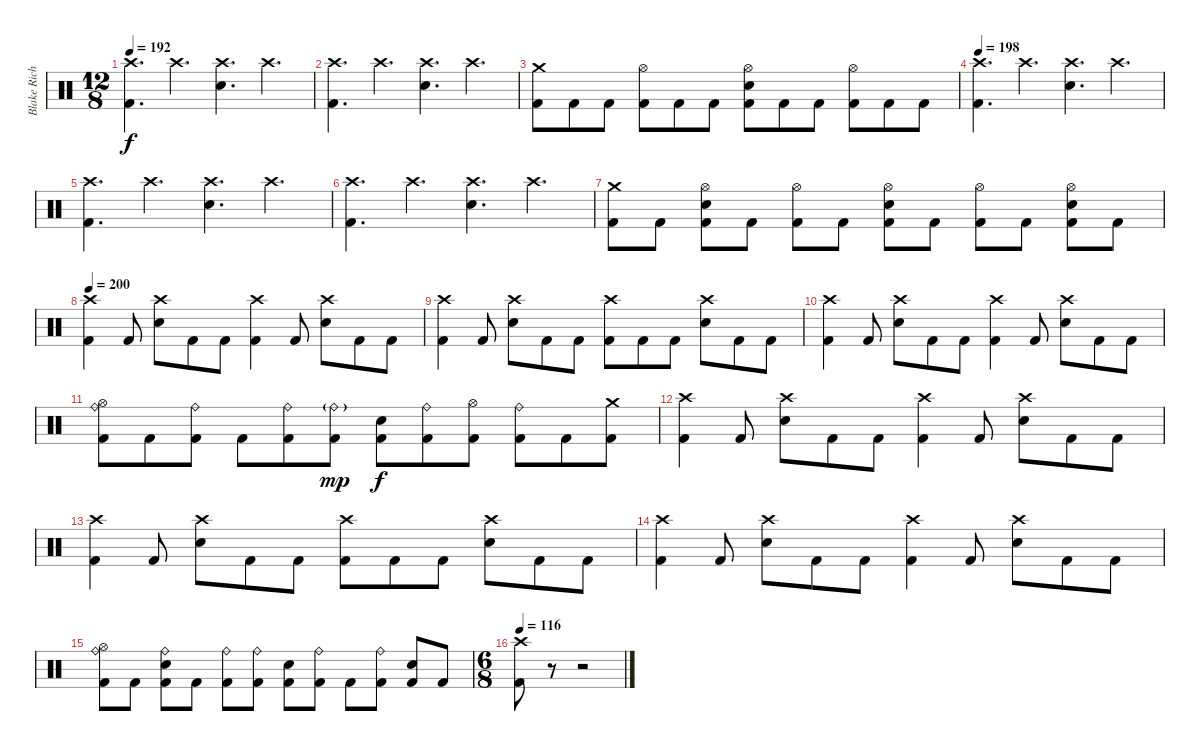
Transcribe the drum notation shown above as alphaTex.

\track ("Blake Richardson" "Blake Rich") {instrument percussion}
\staff {score}
\articulation defaults
\ts (12 8)
\tempo 192
\clef neutral
\ks c
("Crash high (hit)" "Kick (hit) 2").4{d dy f} "Crash high (hit)".4{d} ("Crash high (hit)" "Electric Snare (hit)").4{d} "Crash high (hit)".4{d} |
("Crash high (hit)" "Kick (hit) 2").4{d} "Crash high (hit)".4{d} ("Crash high (hit)" "Electric Snare (hit)").4{d} "Crash high (hit)".4{d} |
("Crash medium (hit)" "Kick (hit) 2").8 "Kick (hit) 2".8 "Kick (hit) 2".8 ("Hi-Hat (open)" "Kick (hit) 2").8 "Kick (hit) 2".8 "Kick (hit) 2".8 ("Hi-Hat (open)" "Electric Snare (hit)" "Kick (hit) 2").8 "Kick (hit) 2".8 "Kick (hit) 2".8 ("Hi-Hat (open)" "Kick (hit) 2").8 "Kick (hit) 2".8 "Kick (hit) 2".8 |
\tempo 198
("Crash high (hit)" "Kick (hit) 2").4{d} "Crash high (hit)".4{d} ("Crash high (hit)" "Electric Snare (hit)").4{d} "Crash high (hit)".4{d} |
("Crash high (hit)" "Kick (hit) 2").4{d} "Crash high (hit)".4{d} ("Crash high (hit)" "Electric Snare (hit)").4{d} "Crash high (hit)".4{d} |
("Crash high (hit)" "Kick (hit) 2").4{d} "Crash high (hit)".4{d} ("Crash high (hit)" "Electric Snare (hit)").4{d} "Crash high (hit)".4{d} |
("Crash medium (hit)" "Kick (hit) 2").8 "Kick (hit) 2".8{beam split} ("Hi-Hat (open)" "Electric Snare (hit)" "Kick (hit) 2").8{beam merge} "Kick (hit) 2".8{beam split} ("Hi-Hat (open)" "Kick (hit) 2").8 "Kick (hit) 2".8{beam split} ("Hi-Hat (open)" "Electric Snare (hit)" "Kick (hit) 2").8 "Kick (hit) 2".8{beam split} ("Hi-Hat (open)" "Kick (hit) 2").8{beam merge} "Kick (hit) 2".8{beam split} ("Hi-Hat (open)" "Electric Snare (hit)" "Kick (hit) 2").8 "Kick (hit) 2".8 |
\tempo 200
("Crash high (hit)" "Kick (hit) 2").4 "Kick (hit) 2".8 ("Crash high (hit)" "Electric Snare (hit)").8 "Kick (hit) 2".8 "Kick (hit) 2".8 ("Crash high (hit)" "Kick (hit) 2").4 "Kick (hit) 2".8 ("Crash high (hit)" "Electric Snare (hit)").8 "Kick (hit) 2".8 "Kick (hit) 2".8 |
("Crash high (hit)" "Kick (hit) 2").4 "Kick (hit) 2".8 ("Crash high (hit)" "Electric Snare (hit)").8 "Kick (hit) 2".8 "Kick (hit) 2".8 ("Crash high (hit)" "Kick (hit) 2").8 "Kick (hit) 2".8 "Kick (hit) 2".8 ("Crash high (hit)" "Electric Snare (hit)").8 "Kick (hit) 2".8 "Kick (hit) 2".8 |
("Crash high (hit)" "Kick (hit) 2").4 "Kick (hit) 2".8 ("Crash high (hit)" "Electric Snare (hit)").8 "Kick (hit) 2".8 "Kick (hit) 2".8 ("Crash high (hit)" "Kick (hit) 2").4 "Kick (hit) 2".8 ("Crash high (hit)" "Electric Snare (hit)").8 "Kick (hit) 2".8 "Kick (hit) 2".8 |
("Hi-Hat (open)" "Ride (bell)" "Kick (hit) 2").8 "Kick (hit) 2".8 ("Ride (bell)" "Kick (hit) 2").8 "Kick (hit) 2".8 ("Ride (bell)" "Kick (hit) 2").8 ("Ride (bell)"{g} "Kick (hit) 2").8{dy mp} ("Electric Snare (hit)" "Kick (hit) 2").8{dy f} ("Ride (bell)" "Kick (hit) 2").8 ("Hi-Hat (open)" "Kick (hit) 2").8 ("Ride (bell)" "Kick (hit) 2").8 "Kick (hit) 2".8 ("Crash medium (hit)" "Kick (hit) 2").8 |
("Crash high (hit)" "Kick (hit) 2").4 "Kick (hit) 2".8 ("Crash high (hit)" "Electric Snare (hit)").8 "Kick (hit) 2".8 "Kick (hit) 2".8 ("Crash high (hit)" "Kick (hit) 2").4 "Kick (hit) 2".8 ("Crash high (hit)" "Electric Snare (hit)").8 "Kick (hit) 2".8 "Kick (hit) 2".8 |
("Crash high (hit)" "Kick (hit) 2").4 "Kick (hit) 2".8 ("Crash high (hit)" "Electric Snare (hit)").8 "Kick (hit) 2".8 "Kick (hit) 2".8 ("Crash high (hit)" "Kick (hit) 2").8 "Kick (hit) 2".8 "Kick (hit) 2".8 ("Crash high (hit)" "Electric Snare (hit)").8 "Kick (hit) 2".8 "Kick (hit) 2".8 |
("Crash high (hit)" "Kick (hit) 2").4 "Kick (hit) 2".8 ("Crash high (hit)" "Electric Snare (hit)").8 "Kick (hit) 2".8 "Kick (hit) 2".8 ("Crash high (hit)" "Kick (hit) 2").4 "Kick (hit) 2".8 ("Crash high (hit)" "Electric Snare (hit)").8 "Kick (hit) 2".8 "Kick (hit) 2".8 |
("Hi-Hat (open)" "Ride (bell)" "Kick (hit) 2").8 "Kick (hit) 2".8{beam split} ("Ride (bell)" "Electric Snare (hit)" "Kick (hit) 2").8{beam merge} "Kick (hit) 2".8{beam split} ("Ride (bell)" "Kick (hit) 2").8 ("Ride (bell)" "Kick (hit) 2").8{beam split} ("Electric Snare (hit)" "Kick (hit) 2").8 ("Ride (bell)" "Kick (hit) 2").8{beam split} "Kick (hit) 2".8{beam merge} ("Ride (bell)" "Kick (hit) 2").8{beam split} ("Electric Snare (hit)" "Kick (hit) 2").8 "Kick (hit) 2".8 |
\ts (6 8)
\tempo 116
("Crash high (hit)" "Kick (hit) 2").8 r.8{volume 0} r.2
